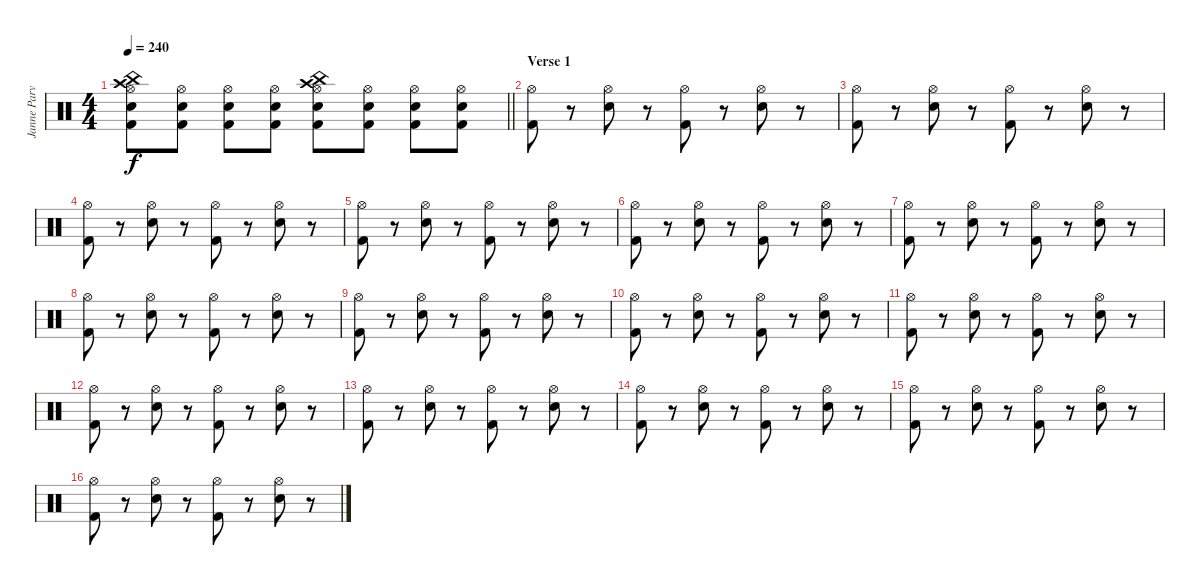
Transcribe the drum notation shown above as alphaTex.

\track ("Janne Parviainen" "Janne Parv") {instrument percussion}
\staff {score}
\articulation defaults
\ts (4 4)
\tempo 240
\clef neutral
\barLineRight lightlight
\ks c
("Electric Snare (hit)" "Kick (hit) 2" "Hi-Hat (open)" "Crash high (hit)" "China (hit)").8{dy f} ("Hi-Hat (open)" "Kick (hit) 2" "Electric Snare (hit)").8 ("Electric Snare (hit)" "Kick (hit) 2" "Hi-Hat (open)").8 ("Hi-Hat (open)" "Kick (hit) 2" "Electric Snare (hit)").8 ("Electric Snare (hit)" "Kick (hit) 2" "Hi-Hat (open)" "China (hit)" "Crash high (hit)").8 ("Hi-Hat (open)" "Kick (hit) 2" "Electric Snare (hit)").8 ("Electric Snare (hit)" "Kick (hit) 2" "Hi-Hat (open)").8 ("Hi-Hat (open)" "Kick (hit) 2" "Electric Snare (hit)").8 |
\section ("" "Verse 1")
("Kick (hit) 2" "Hi-Hat (open)").8 r.8 ("Electric Snare (hit)" "Hi-Hat (open)").8 r.8 ("Kick (hit) 2" "Hi-Hat (open)").8 r.8 ("Electric Snare (hit)" "Hi-Hat (open)").8 r.8 |
("Kick (hit) 2" "Hi-Hat (open)").8 r.8 ("Electric Snare (hit)" "Hi-Hat (open)").8 r.8 ("Kick (hit) 2" "Hi-Hat (open)").8 r.8 ("Electric Snare (hit)" "Hi-Hat (open)").8 r.8 |
("Kick (hit) 2" "Hi-Hat (open)").8 r.8 ("Electric Snare (hit)" "Hi-Hat (open)").8 r.8 ("Kick (hit) 2" "Hi-Hat (open)").8 r.8 ("Electric Snare (hit)" "Hi-Hat (open)").8 r.8 |
("Kick (hit) 2" "Hi-Hat (open)").8 r.8 ("Electric Snare (hit)" "Hi-Hat (open)").8 r.8 ("Kick (hit) 2" "Hi-Hat (open)").8 r.8 ("Electric Snare (hit)" "Hi-Hat (open)").8 r.8 |
("Kick (hit) 2" "Hi-Hat (open)").8 r.8 ("Electric Snare (hit)" "Hi-Hat (open)").8 r.8 ("Kick (hit) 2" "Hi-Hat (open)").8 r.8 ("Electric Snare (hit)" "Hi-Hat (open)").8 r.8 |
("Kick (hit) 2" "Hi-Hat (open)").8 r.8 ("Electric Snare (hit)" "Hi-Hat (open)").8 r.8 ("Kick (hit) 2" "Hi-Hat (open)").8 r.8 ("Electric Snare (hit)" "Hi-Hat (open)").8 r.8 |
("Kick (hit) 2" "Hi-Hat (open)").8 r.8 ("Electric Snare (hit)" "Hi-Hat (open)").8 r.8 ("Kick (hit) 2" "Hi-Hat (open)").8 r.8 ("Electric Snare (hit)" "Hi-Hat (open)").8 r.8 |
("Kick (hit) 2" "Hi-Hat (open)").8 r.8 ("Electric Snare (hit)" "Hi-Hat (open)").8 r.8 ("Kick (hit) 2" "Hi-Hat (open)").8 r.8 ("Electric Snare (hit)" "Hi-Hat (open)").8 r.8 |
("Kick (hit) 2" "Hi-Hat (open)").8 r.8 ("Electric Snare (hit)" "Hi-Hat (open)").8 r.8 ("Kick (hit) 2" "Hi-Hat (open)").8 r.8 ("Electric Snare (hit)" "Hi-Hat (open)").8 r.8 |
("Kick (hit) 2" "Hi-Hat (open)").8 r.8 ("Electric Snare (hit)" "Hi-Hat (open)").8 r.8 ("Kick (hit) 2" "Hi-Hat (open)").8 r.8 ("Electric Snare (hit)" "Hi-Hat (open)").8 r.8 |
("Kick (hit) 2" "Hi-Hat (open)").8 r.8 ("Electric Snare (hit)" "Hi-Hat (open)").8 r.8 ("Kick (hit) 2" "Hi-Hat (open)").8 r.8 ("Electric Snare (hit)" "Hi-Hat (open)").8 r.8 |
("Kick (hit) 2" "Hi-Hat (open)").8 r.8 ("Electric Snare (hit)" "Hi-Hat (open)").8 r.8 ("Kick (hit) 2" "Hi-Hat (open)").8 r.8 ("Electric Snare (hit)" "Hi-Hat (open)").8 r.8 |
("Kick (hit) 2" "Hi-Hat (open)").8 r.8 ("Electric Snare (hit)" "Hi-Hat (open)").8 r.8 ("Kick (hit) 2" "Hi-Hat (open)").8 r.8 ("Electric Snare (hit)" "Hi-Hat (open)").8 r.8 |
("Kick (hit) 2" "Hi-Hat (open)").8 r.8 ("Electric Snare (hit)" "Hi-Hat (open)").8 r.8 ("Kick (hit) 2" "Hi-Hat (open)").8 r.8 ("Electric Snare (hit)" "Hi-Hat (open)").8 r.8 |
("Kick (hit) 2" "Hi-Hat (open)").8 r.8 ("Electric Snare (hit)" "Hi-Hat (open)").8 r.8 ("Kick (hit) 2" "Hi-Hat (open)").8 r.8 ("Electric Snare (hit)" "Hi-Hat (open)").8 r.8
